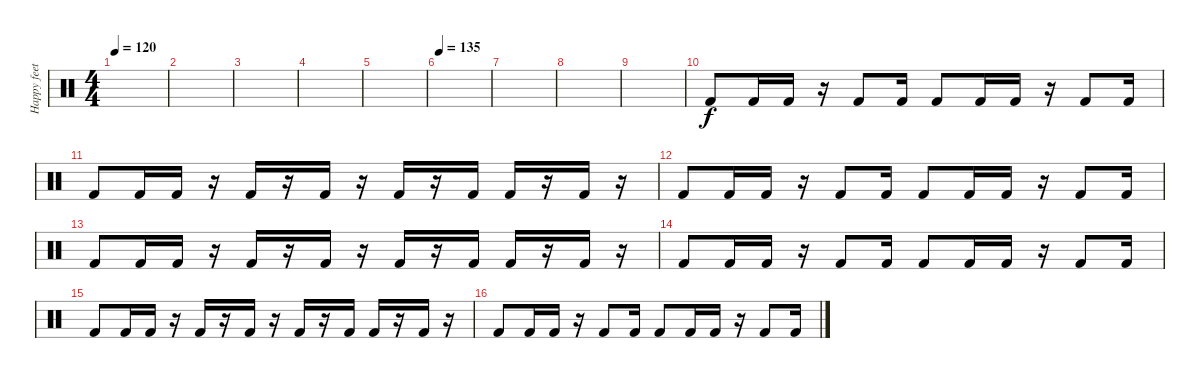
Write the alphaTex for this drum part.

\track ("Happy feet" "Happy feet") {instrument percussion}
\staff {score}
\articulation defaults
\ts (4 4)
\tempo 120
\clef neutral
\ks c
|
|
|
|
|
\tempo 135
|
|
|
|
"Kick (hit) 2".8 "Kick (hit) 2".16 "Kick (hit) 2".16 r.16 "Kick (hit) 2".8 "Kick (hit) 2".16 "Kick (hit) 2".8 "Kick (hit) 2".16 "Kick (hit) 2".16 r.16 "Kick (hit) 2".8 "Kick (hit) 2".16 |
"Kick (hit) 2".8 "Kick (hit) 2".16 "Kick (hit) 2".16 r.16 "Kick (hit) 2".16 r.16 "Kick (hit) 2".16 r.16 "Kick (hit) 2".16 r.16 "Kick (hit) 2".16 "Kick (hit) 2".16 r.16 "Kick (hit) 2".16 r.16 |
"Kick (hit) 2".8 "Kick (hit) 2".16 "Kick (hit) 2".16 r.16 "Kick (hit) 2".8 "Kick (hit) 2".16 "Kick (hit) 2".8 "Kick (hit) 2".16 "Kick (hit) 2".16 r.16 "Kick (hit) 2".8 "Kick (hit) 2".16 |
"Kick (hit) 2".8 "Kick (hit) 2".16 "Kick (hit) 2".16 r.16 "Kick (hit) 2".16 r.16 "Kick (hit) 2".16 r.16 "Kick (hit) 2".16 r.16 "Kick (hit) 2".16 "Kick (hit) 2".16 r.16 "Kick (hit) 2".16 r.16 |
"Kick (hit) 2".8 "Kick (hit) 2".16 "Kick (hit) 2".16 r.16 "Kick (hit) 2".8 "Kick (hit) 2".16 "Kick (hit) 2".8 "Kick (hit) 2".16 "Kick (hit) 2".16 r.16 "Kick (hit) 2".8 "Kick (hit) 2".16 |
"Kick (hit) 2".8 "Kick (hit) 2".16 "Kick (hit) 2".16 r.16 "Kick (hit) 2".16 r.16 "Kick (hit) 2".16 r.16 "Kick (hit) 2".16 r.16 "Kick (hit) 2".16 "Kick (hit) 2".16 r.16 "Kick (hit) 2".16 r.16 |
"Kick (hit) 2".8 "Kick (hit) 2".16 "Kick (hit) 2".16 r.16 "Kick (hit) 2".8 "Kick (hit) 2".16 "Kick (hit) 2".8 "Kick (hit) 2".16 "Kick (hit) 2".16 r.16 "Kick (hit) 2".8 "Kick (hit) 2".16
